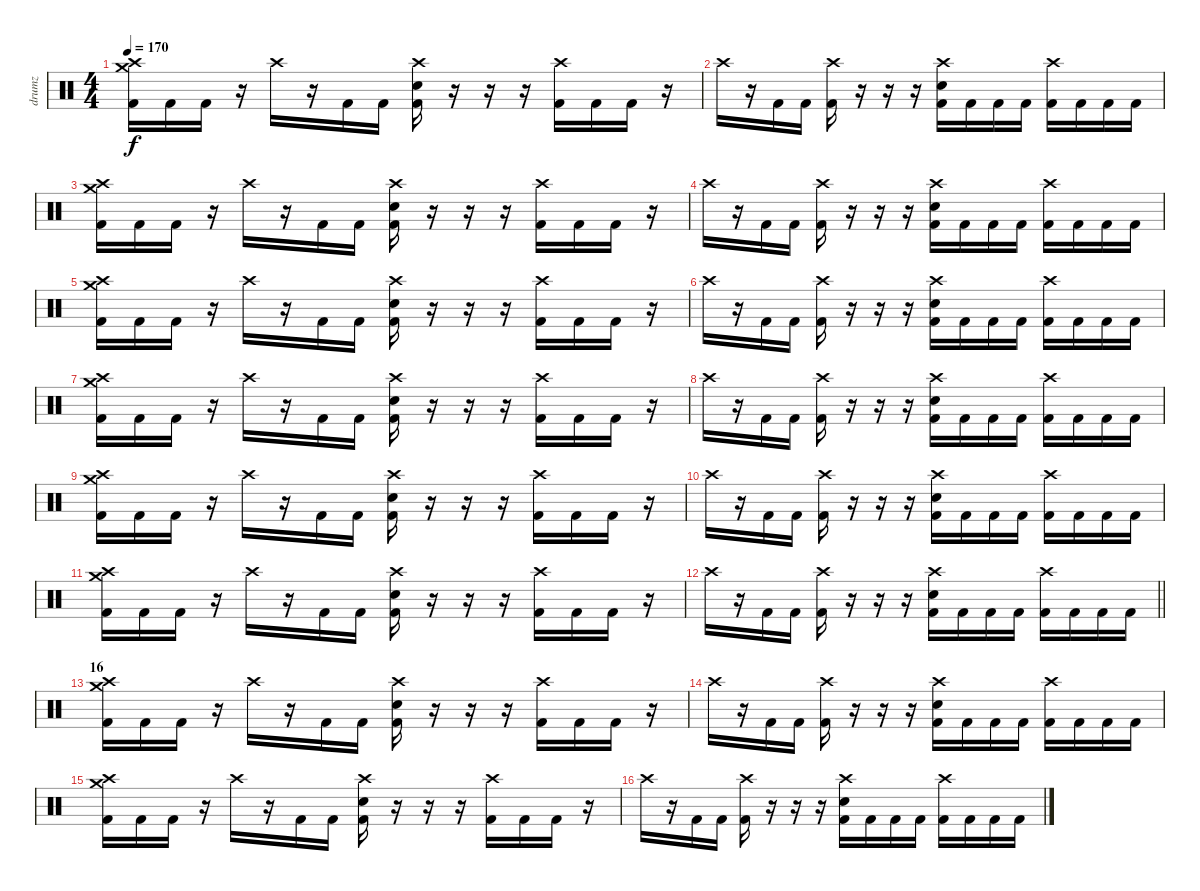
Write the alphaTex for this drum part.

\track ("drumz" "drumz") {instrument percussion}
\staff {score}
\articulation defaults
\ts (4 4)
\tempo 170
\clef neutral
\ks c
("Crash high (hit)" "Crash medium (hit)" "Kick (hit) 2").16{dy f} "Kick (hit) 2".16 "Kick (hit) 2".16 r.16 "Crash high (hit)".16 r.16 "Kick (hit) 2".16 "Kick (hit) 2".16 ("Crash high (hit)" "Electric Snare (hit)" "Kick (hit) 2").16 r.16 r.16 r.16 ("Crash high (hit)" "Kick (hit) 2").16 "Kick (hit) 2".16 "Kick (hit) 2".16 r.16 |
"Crash high (hit)".16 r.16 "Kick (hit) 2".16 "Kick (hit) 2".16 ("Crash high (hit)" "Kick (hit) 2").16 r.16 r.16 r.16 ("Crash high (hit)" "Electric Snare (hit)" "Kick (hit) 2").16 "Kick (hit) 2".16 "Kick (hit) 2".16 "Kick (hit) 2".16 ("Crash high (hit)" "Kick (hit) 2").16 "Kick (hit) 2".16 "Kick (hit) 2".16 "Kick (hit) 2".16 |
("Crash high (hit)" "Crash medium (hit)" "Kick (hit) 2").16 "Kick (hit) 2".16 "Kick (hit) 2".16 r.16 "Crash high (hit)".16 r.16 "Kick (hit) 2".16 "Kick (hit) 2".16 ("Crash high (hit)" "Electric Snare (hit)" "Kick (hit) 2").16 r.16 r.16 r.16 ("Crash high (hit)" "Kick (hit) 2").16 "Kick (hit) 2".16 "Kick (hit) 2".16 r.16 |
"Crash high (hit)".16 r.16 "Kick (hit) 2".16 "Kick (hit) 2".16 ("Crash high (hit)" "Kick (hit) 2").16 r.16 r.16 r.16 ("Crash high (hit)" "Electric Snare (hit)" "Kick (hit) 2").16 "Kick (hit) 2".16 "Kick (hit) 2".16 "Kick (hit) 2".16 ("Crash high (hit)" "Kick (hit) 2").16 "Kick (hit) 2".16 "Kick (hit) 2".16 "Kick (hit) 2".16 |
("Crash high (hit)" "Crash medium (hit)" "Kick (hit) 2").16 "Kick (hit) 2".16 "Kick (hit) 2".16 r.16 "Crash high (hit)".16 r.16 "Kick (hit) 2".16 "Kick (hit) 2".16 ("Crash high (hit)" "Electric Snare (hit)" "Kick (hit) 2").16 r.16 r.16 r.16 ("Crash high (hit)" "Kick (hit) 2").16 "Kick (hit) 2".16 "Kick (hit) 2".16 r.16 |
"Crash high (hit)".16 r.16 "Kick (hit) 2".16 "Kick (hit) 2".16 ("Crash high (hit)" "Kick (hit) 2").16 r.16 r.16 r.16 ("Crash high (hit)" "Electric Snare (hit)" "Kick (hit) 2").16 "Kick (hit) 2".16 "Kick (hit) 2".16 "Kick (hit) 2".16 ("Crash high (hit)" "Kick (hit) 2").16 "Kick (hit) 2".16 "Kick (hit) 2".16 "Kick (hit) 2".16 |
("Crash high (hit)" "Crash medium (hit)" "Kick (hit) 2").16 "Kick (hit) 2".16 "Kick (hit) 2".16 r.16 "Crash high (hit)".16 r.16 "Kick (hit) 2".16 "Kick (hit) 2".16 ("Crash high (hit)" "Electric Snare (hit)" "Kick (hit) 2").16 r.16 r.16 r.16 ("Crash high (hit)" "Kick (hit) 2").16 "Kick (hit) 2".16 "Kick (hit) 2".16 r.16 |
"Crash high (hit)".16 r.16 "Kick (hit) 2".16 "Kick (hit) 2".16 ("Crash high (hit)" "Kick (hit) 2").16 r.16 r.16 r.16 ("Crash high (hit)" "Electric Snare (hit)" "Kick (hit) 2").16 "Kick (hit) 2".16 "Kick (hit) 2".16 "Kick (hit) 2".16 ("Crash high (hit)" "Kick (hit) 2").16 "Kick (hit) 2".16 "Kick (hit) 2".16 "Kick (hit) 2".16 |
("Crash high (hit)" "Crash medium (hit)" "Kick (hit) 2").16 "Kick (hit) 2".16 "Kick (hit) 2".16 r.16 "Crash high (hit)".16 r.16 "Kick (hit) 2".16 "Kick (hit) 2".16 ("Crash high (hit)" "Electric Snare (hit)" "Kick (hit) 2").16 r.16 r.16 r.16 ("Crash high (hit)" "Kick (hit) 2").16 "Kick (hit) 2".16 "Kick (hit) 2".16 r.16 |
"Crash high (hit)".16 r.16 "Kick (hit) 2".16 "Kick (hit) 2".16 ("Crash high (hit)" "Kick (hit) 2").16 r.16 r.16 r.16 ("Crash high (hit)" "Electric Snare (hit)" "Kick (hit) 2").16 "Kick (hit) 2".16 "Kick (hit) 2".16 "Kick (hit) 2".16 ("Crash high (hit)" "Kick (hit) 2").16 "Kick (hit) 2".16 "Kick (hit) 2".16 "Kick (hit) 2".16 |
("Crash high (hit)" "Crash medium (hit)" "Kick (hit) 2").16 "Kick (hit) 2".16 "Kick (hit) 2".16 r.16 "Crash high (hit)".16 r.16 "Kick (hit) 2".16 "Kick (hit) 2".16 ("Crash high (hit)" "Electric Snare (hit)" "Kick (hit) 2").16 r.16 r.16 r.16 ("Crash high (hit)" "Kick (hit) 2").16 "Kick (hit) 2".16 "Kick (hit) 2".16 r.16 |
\barLineRight lightlight "Crash high (hit)".16
r.16 "Kick (hit) 2".16 "Kick (hit) 2".16 ("Crash high (hit)" "Kick (hit) 2").16 r.16 r.16 r.16 ("Crash high (hit)" "Electric Snare (hit)" "Kick (hit) 2").16 "Kick (hit) 2".16 "Kick (hit) 2".16 "Kick (hit) 2".16 ("Crash high (hit)" "Kick (hit) 2").16 "Kick (hit) 2".16 "Kick (hit) 2".16 "Kick (hit) 2".16 |
\section ("" "16")
("Crash high (hit)" "Crash medium (hit)" "Kick (hit) 2").16 "Kick (hit) 2".16 "Kick (hit) 2".16 r.16 "Crash high (hit)".16 r.16 "Kick (hit) 2".16 "Kick (hit) 2".16 ("Crash high (hit)" "Electric Snare (hit)" "Kick (hit) 2").16 r.16 r.16 r.16 ("Crash high (hit)" "Kick (hit) 2").16 "Kick (hit) 2".16 "Kick (hit) 2".16 r.16 |
"Crash high (hit)".16 r.16 "Kick (hit) 2".16 "Kick (hit) 2".16 ("Crash high (hit)" "Kick (hit) 2").16 r.16 r.16 r.16 ("Crash high (hit)" "Electric Snare (hit)" "Kick (hit) 2").16 "Kick (hit) 2".16 "Kick (hit) 2".16 "Kick (hit) 2".16 ("Crash high (hit)" "Kick (hit) 2").16 "Kick (hit) 2".16 "Kick (hit) 2".16 "Kick (hit) 2".16 |
("Crash high (hit)" "Crash medium (hit)" "Kick (hit) 2").16 "Kick (hit) 2".16 "Kick (hit) 2".16 r.16 "Crash high (hit)".16 r.16 "Kick (hit) 2".16 "Kick (hit) 2".16 ("Crash high (hit)" "Electric Snare (hit)" "Kick (hit) 2").16 r.16 r.16 r.16 ("Crash high (hit)" "Kick (hit) 2").16 "Kick (hit) 2".16 "Kick (hit) 2".16 r.16 |
"Crash high (hit)".16 r.16 "Kick (hit) 2".16 "Kick (hit) 2".16 ("Crash high (hit)" "Kick (hit) 2").16 r.16 r.16 r.16 ("Crash high (hit)" "Electric Snare (hit)" "Kick (hit) 2").16 "Kick (hit) 2".16 "Kick (hit) 2".16 "Kick (hit) 2".16 ("Crash high (hit)" "Kick (hit) 2").16 "Kick (hit) 2".16 "Kick (hit) 2".16 "Kick (hit) 2".16
